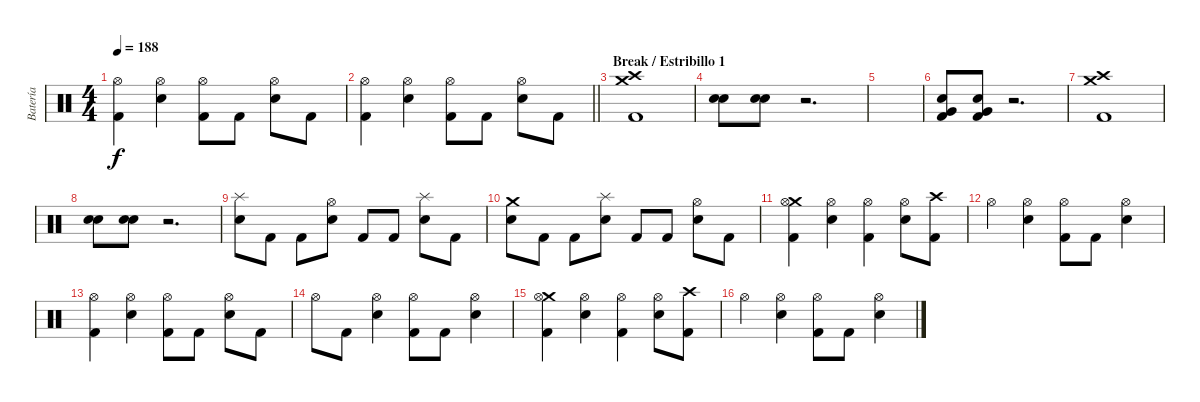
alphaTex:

\track ("Batería" "Batería") {instrument percussion}
\staff {score}
\articulation defaults
\ts (4 4)
\tempo 188
\clef neutral
\ks c
("Hi-Hat (open)" "Kick (hit) 2").4{dy f} ("Hi-Hat (open)" "Electric Snare (hit)").4 ("Hi-Hat (open)" "Kick (hit) 2").8 "Kick (hit) 2".8 ("Hi-Hat (open)" "Electric Snare (hit)").8 "Kick (hit) 2".8 |
\barLineRight lightlight
("Hi-Hat (open)" "Kick (hit) 2").4 ("Hi-Hat (open)" "Electric Snare (hit)").4 ("Hi-Hat (open)" "Kick (hit) 2").8 "Kick (hit) 2".8 ("Hi-Hat (open)" "Electric Snare (hit)").8 "Kick (hit) 2".8 |
\section ("" "Break / Estribillo 1")
("Crash medium (hit)" "Crash high (hit)" "Kick (hit) 2").1 |
("Electric Snare (hit)" "Electric Snare (hit)").8 ("Electric Snare (hit)" "Electric Snare (hit)").8 r.2{d} |
|
("Very Low Tom (hit)" "Electric Snare (hit)" "Kick (hit) 2").8 ("Very Low Tom (hit)" "Electric Snare (hit)" "Kick (hit) 2").8 r.2{d} |
("Crash medium (hit)" "Crash high (hit)" "Kick (hit) 2").1 |
("Electric Snare (hit)" "Electric Snare (hit)").8 ("Electric Snare (hit)" "Electric Snare (hit)").8 r.2{d} |
("Splash (hit)" "Electric Snare (hit)").8 "Kick (hit) 2".8 "Kick (hit) 2".8 ("Hi-Hat (open)" "Electric Snare (hit)").8 "Kick (hit) 2".8 "Kick (hit) 2".8 ("Splash (hit)" "Electric Snare (hit)").8 "Kick (hit) 2".8 |
("Crash medium (hit)" "Electric Snare (hit)").8 "Kick (hit) 2".8 "Kick (hit) 2".8 ("Splash (hit)" "Electric Snare (hit)").8 "Kick (hit) 2".8 "Kick (hit) 2".8 ("Hi-Hat (open)" "Electric Snare (hit)").8 "Kick (hit) 2".8 |
("Crash medium (hit)" "Hi-Hat (open)" "Kick (hit) 2").4 ("Hi-Hat (open)" "Electric Snare (hit)").4 ("Hi-Hat (open)" "Kick (hit) 2").4 ("Hi-Hat (open)" "Electric Snare (hit)").8 ("Crash high (hit)" "Kick (hit) 2").8 |
"Hi-Hat (open)".4 ("Hi-Hat (open)" "Electric Snare (hit)").4 ("Hi-Hat (open)" "Kick (hit) 2").8 "Kick (hit) 2".8 ("Hi-Hat (open)" "Electric Snare (hit)").4 |
("Hi-Hat (open)" "Kick (hit) 2").4 ("Hi-Hat (open)" "Electric Snare (hit)").4 ("Hi-Hat (open)" "Kick (hit) 2").8 "Kick (hit) 2".8 ("Hi-Hat (open)" "Electric Snare (hit)").8 "Kick (hit) 2".8 |
"Hi-Hat (open)".8 "Kick (hit) 2".8 ("Hi-Hat (open)" "Electric Snare (hit)").4 ("Hi-Hat (open)" "Kick (hit) 2").8 "Kick (hit) 2".8 ("Hi-Hat (open)" "Electric Snare (hit)").4 |
("Crash medium (hit)" "Hi-Hat (open)" "Kick (hit) 2").4 ("Hi-Hat (open)" "Electric Snare (hit)").4 ("Hi-Hat (open)" "Kick (hit) 2").4 ("Hi-Hat (open)" "Electric Snare (hit)").8 ("Crash high (hit)" "Kick (hit) 2").8 |
"Hi-Hat (open)".4 ("Hi-Hat (open)" "Electric Snare (hit)").4 ("Hi-Hat (open)" "Kick (hit) 2").8 "Kick (hit) 2".8 ("Hi-Hat (open)" "Electric Snare (hit)").4
